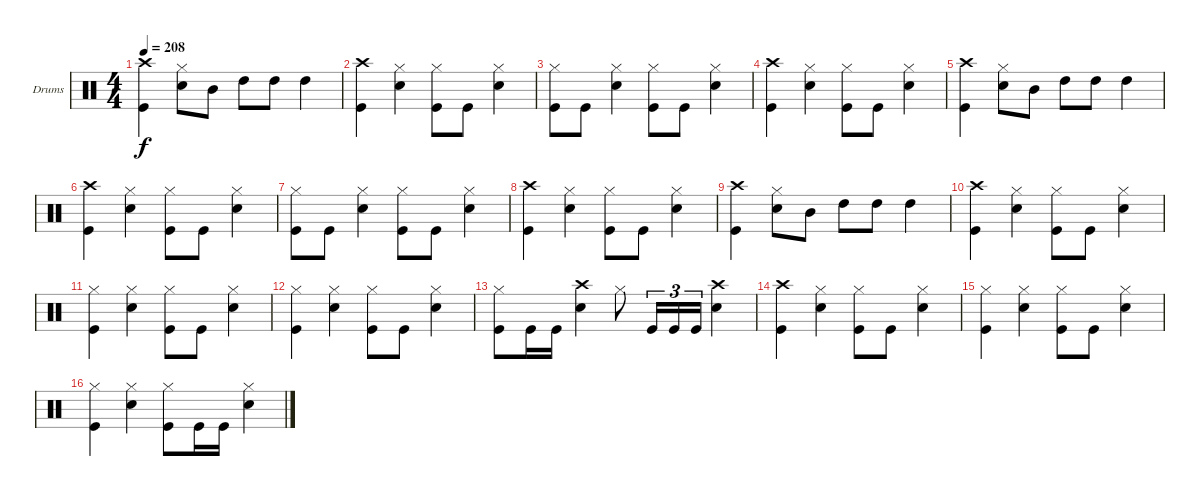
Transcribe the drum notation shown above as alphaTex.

\defaultSystemsLayout 4
\bracketExtendMode groupsimilarinstruments
\firstSystemTrackNameOrientation horizontal
\otherSystemsTrackNameOrientation horizontal
\track ("Drums" "Drums") {instrument percussion}
\staff {score}
\articulation defaults
\ts (4 4)
\tempo 208
\clef neutral
\ks c
("Kick (hit)" "Crash high (hit)").4{dy f} ("Snare (hit) 2" "Hi-Hat (closed)").8 "Mid Tom (hit)".8 "High Tom (hit)".8 "High Tom (hit)".8 "High Tom (hit)".4 |
("Kick (hit)" "Crash high (hit)").4 ("Snare (hit) 2" "Hi-Hat (closed)").4 ("Kick (hit)" "Hi-Hat (closed)").8 "Kick (hit)".8 ("Snare (hit) 2" "Hi-Hat (closed)").4 |
("Hi-Hat (closed)" "Kick (hit)").8 "Kick (hit)".8 ("Snare (hit) 2" "Hi-Hat (closed)").4 ("Hi-Hat (closed)" "Kick (hit)").8 "Kick (hit)".8 ("Snare (hit) 2" "Hi-Hat (closed)").4 |
("Kick (hit)" "Crash high (hit)").4 ("Snare (hit) 2" "Hi-Hat (closed)").4 ("Kick (hit)" "Hi-Hat (closed)").8 "Kick (hit)".8 ("Snare (hit) 2" "Hi-Hat (closed)").4 |
("Kick (hit)" "Crash high (hit)").4 ("Snare (hit) 2" "Hi-Hat (closed)").8 "Mid Tom (hit)".8 "High Tom (hit)".8 "High Tom (hit)".8 "High Tom (hit)".4 |
("Kick (hit)" "Crash high (hit)").4 ("Snare (hit) 2" "Hi-Hat (closed)").4 ("Kick (hit)" "Hi-Hat (closed)").8 "Kick (hit)".8 ("Snare (hit) 2" "Hi-Hat (closed)").4 |
("Hi-Hat (closed)" "Kick (hit)").8 "Kick (hit)".8 ("Snare (hit) 2" "Hi-Hat (closed)").4 ("Hi-Hat (closed)" "Kick (hit)").8 "Kick (hit)".8 ("Snare (hit) 2" "Hi-Hat (closed)").4 |
("Kick (hit)" "Crash high (hit)").4 ("Snare (hit) 2" "Hi-Hat (closed)").4 ("Kick (hit)" "Hi-Hat (closed)").8 "Kick (hit)".8 ("Snare (hit) 2" "Hi-Hat (closed)").4 |
("Kick (hit)" "Crash high (hit)").4 ("Snare (hit) 2" "Hi-Hat (closed)").8 "Mid Tom (hit)".8 "High Tom (hit)".8 "High Tom (hit)".8 "High Tom (hit)".4 |
("Kick (hit)" "Crash high (hit)").4 ("Snare (hit) 2" "Hi-Hat (closed)").4 ("Kick (hit)" "Hi-Hat (closed)").8 "Kick (hit)".8 ("Snare (hit) 2" "Hi-Hat (closed)").4 |
("Hi-Hat (closed)" "Kick (hit)").4 ("Snare (hit) 2" "Hi-Hat (closed)").4 ("Hi-Hat (closed)" "Kick (hit)").8 "Kick (hit)".8 ("Snare (hit) 2" "Hi-Hat (closed)").4 |
("Kick (hit)" "Hi-Hat (closed)").4 ("Snare (hit) 2" "Hi-Hat (closed)").4 ("Hi-Hat (closed)" "Kick (hit)").8 "Kick (hit)".8 ("Snare (hit) 2" "Hi-Hat (closed)").4 |
("Hi-Hat (closed)" "Kick (hit)").8 "Kick (hit)".16 "Kick (hit)".16 ("Snare (hit) 2" "Crash high (hit)").4 "Hi-Hat (closed)".8 "Kick (hit)".16{tu (3 2)} "Kick (hit)".16{tu (3 2)} "Kick (hit)".16{tu (3 2)} ("Snare (hit) 2" "Crash high (hit)").4 |
("Crash high (hit)" "Kick (hit)").4 ("Snare (hit) 2" "Hi-Hat (closed)").4 ("Kick (hit)" "Hi-Hat (closed)").8 "Kick (hit)".8 ("Snare (hit) 2" "Hi-Hat (closed)").4 |
("Kick (hit)" "Hi-Hat (closed)").4 ("Snare (hit) 2" "Hi-Hat (closed)").4 ("Hi-Hat (closed)" "Kick (hit)").8 "Kick (hit)".8 ("Snare (hit) 2" "Hi-Hat (closed)").4 |
("Kick (hit)" "Hi-Hat (closed)").4 ("Snare (hit) 2" "Hi-Hat (closed)").4 ("Hi-Hat (closed)" "Kick (hit)").8 "Kick (hit)".16 "Kick (hit)".16 ("Snare (hit) 2" "Hi-Hat (closed)").4
